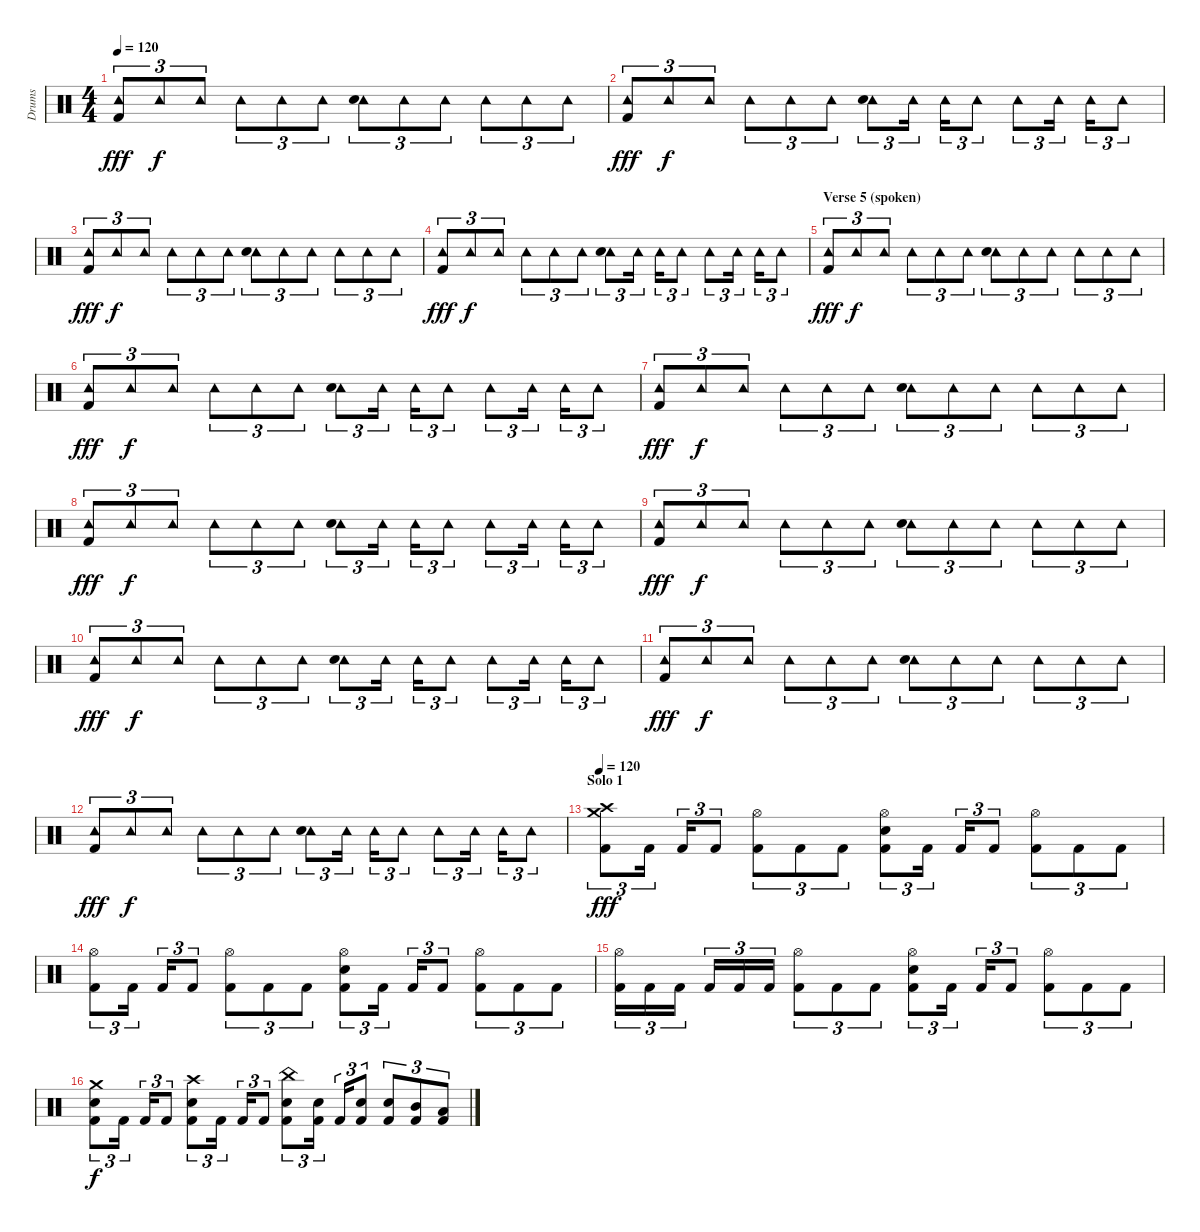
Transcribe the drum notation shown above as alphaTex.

\track ("Drums" "Drums") {instrument percussion}
\staff {score}
\articulation defaults
\ts (4 4)
\tempo 120
\clef neutral
\ks c
("Tambourine (hit)" "Kick (hit) 2").8{tu (3 2) dy fff} "Tambourine (hit)".8{tu (3 2) dy f} "Tambourine (hit)".8{tu (3 2)} "Tambourine (hit)".8{tu (3 2)} "Tambourine (hit)".8{tu (3 2)} "Tambourine (hit)".8{tu (3 2)} ("Tambourine (hit)" "Snare (hit) 2").8{tu (3 2)} "Tambourine (hit)".8{tu (3 2)} "Tambourine (hit)".8{tu (3 2)} "Tambourine (hit)".8{tu (3 2)} "Tambourine (hit)".8{tu (3 2)} "Tambourine (hit)".8{tu (3 2)} |
("Tambourine (hit)" "Kick (hit) 2").8{tu (3 2) dy fff} "Tambourine (hit)".8{tu (3 2) dy f} "Tambourine (hit)".8{tu (3 2)} "Tambourine (hit)".8{tu (3 2)} "Tambourine (hit)".8{tu (3 2)} "Tambourine (hit)".8{tu (3 2)} ("Tambourine (hit)" "Snare (hit) 2").8{tu (3 2)} "Tambourine (hit)".16{tu (3 2)} "Tambourine (hit)".16{tu (3 2)} "Tambourine (hit)".8{tu (3 2)} "Tambourine (hit)".8{tu (3 2)} "Tambourine (hit)".16{tu (3 2)} "Tambourine (hit)".16{tu (3 2)} "Tambourine (hit)".8{tu (3 2)} |
("Tambourine (hit)" "Kick (hit) 2").8{tu (3 2) dy fff} "Tambourine (hit)".8{tu (3 2) dy f} "Tambourine (hit)".8{tu (3 2)} "Tambourine (hit)".8{tu (3 2)} "Tambourine (hit)".8{tu (3 2)} "Tambourine (hit)".8{tu (3 2)} ("Tambourine (hit)" "Snare (hit) 2").8{tu (3 2)} "Tambourine (hit)".8{tu (3 2)} "Tambourine (hit)".8{tu (3 2)} "Tambourine (hit)".8{tu (3 2)} "Tambourine (hit)".8{tu (3 2)} "Tambourine (hit)".8{tu (3 2)} |
("Tambourine (hit)" "Kick (hit) 2").8{tu (3 2) dy fff} "Tambourine (hit)".8{tu (3 2) dy f} "Tambourine (hit)".8{tu (3 2)} "Tambourine (hit)".8{tu (3 2)} "Tambourine (hit)".8{tu (3 2)} "Tambourine (hit)".8{tu (3 2)} ("Tambourine (hit)" "Snare (hit) 2").8{tu (3 2)} "Tambourine (hit)".16{tu (3 2)} "Tambourine (hit)".16{tu (3 2)} "Tambourine (hit)".8{tu (3 2)} "Tambourine (hit)".8{tu (3 2)} "Tambourine (hit)".16{tu (3 2)} "Tambourine (hit)".16{tu (3 2)} "Tambourine (hit)".8{tu (3 2)} |
\section ("" "Verse 5 (spoken)")
("Tambourine (hit)" "Kick (hit) 2").8{tu (3 2) dy fff} "Tambourine (hit)".8{tu (3 2) dy f} "Tambourine (hit)".8{tu (3 2)} "Tambourine (hit)".8{tu (3 2)} "Tambourine (hit)".8{tu (3 2)} "Tambourine (hit)".8{tu (3 2)} ("Tambourine (hit)" "Snare (hit) 2").8{tu (3 2)} "Tambourine (hit)".8{tu (3 2)} "Tambourine (hit)".8{tu (3 2)} "Tambourine (hit)".8{tu (3 2)} "Tambourine (hit)".8{tu (3 2)} "Tambourine (hit)".8{tu (3 2)} |
("Tambourine (hit)" "Kick (hit) 2").8{tu (3 2) dy fff} "Tambourine (hit)".8{tu (3 2) dy f} "Tambourine (hit)".8{tu (3 2)} "Tambourine (hit)".8{tu (3 2)} "Tambourine (hit)".8{tu (3 2)} "Tambourine (hit)".8{tu (3 2)} ("Tambourine (hit)" "Snare (hit) 2").8{tu (3 2)} "Tambourine (hit)".16{tu (3 2)} "Tambourine (hit)".16{tu (3 2)} "Tambourine (hit)".8{tu (3 2)} "Tambourine (hit)".8{tu (3 2)} "Tambourine (hit)".16{tu (3 2)} "Tambourine (hit)".16{tu (3 2)} "Tambourine (hit)".8{tu (3 2)} |
("Tambourine (hit)" "Kick (hit) 2").8{tu (3 2) dy fff} "Tambourine (hit)".8{tu (3 2) dy f} "Tambourine (hit)".8{tu (3 2)} "Tambourine (hit)".8{tu (3 2)} "Tambourine (hit)".8{tu (3 2)} "Tambourine (hit)".8{tu (3 2)} ("Tambourine (hit)" "Snare (hit) 2").8{tu (3 2)} "Tambourine (hit)".8{tu (3 2)} "Tambourine (hit)".8{tu (3 2)} "Tambourine (hit)".8{tu (3 2)} "Tambourine (hit)".8{tu (3 2)} "Tambourine (hit)".8{tu (3 2)} |
("Tambourine (hit)" "Kick (hit) 2").8{tu (3 2) dy fff} "Tambourine (hit)".8{tu (3 2) dy f} "Tambourine (hit)".8{tu (3 2)} "Tambourine (hit)".8{tu (3 2)} "Tambourine (hit)".8{tu (3 2)} "Tambourine (hit)".8{tu (3 2)} ("Tambourine (hit)" "Snare (hit) 2").8{tu (3 2)} "Tambourine (hit)".16{tu (3 2)} "Tambourine (hit)".16{tu (3 2)} "Tambourine (hit)".8{tu (3 2)} "Tambourine (hit)".8{tu (3 2)} "Tambourine (hit)".16{tu (3 2)} "Tambourine (hit)".16{tu (3 2)} "Tambourine (hit)".8{tu (3 2)} |
("Tambourine (hit)" "Kick (hit) 2").8{tu (3 2) dy fff} "Tambourine (hit)".8{tu (3 2) dy f} "Tambourine (hit)".8{tu (3 2)} "Tambourine (hit)".8{tu (3 2)} "Tambourine (hit)".8{tu (3 2)} "Tambourine (hit)".8{tu (3 2)} ("Tambourine (hit)" "Snare (hit) 2").8{tu (3 2)} "Tambourine (hit)".8{tu (3 2)} "Tambourine (hit)".8{tu (3 2)} "Tambourine (hit)".8{tu (3 2)} "Tambourine (hit)".8{tu (3 2)} "Tambourine (hit)".8{tu (3 2)} |
("Tambourine (hit)" "Kick (hit) 2").8{tu (3 2) dy fff} "Tambourine (hit)".8{tu (3 2) dy f} "Tambourine (hit)".8{tu (3 2)} "Tambourine (hit)".8{tu (3 2)} "Tambourine (hit)".8{tu (3 2)} "Tambourine (hit)".8{tu (3 2)} ("Tambourine (hit)" "Snare (hit) 2").8{tu (3 2)} "Tambourine (hit)".16{tu (3 2)} "Tambourine (hit)".16{tu (3 2)} "Tambourine (hit)".8{tu (3 2)} "Tambourine (hit)".8{tu (3 2)} "Tambourine (hit)".16{tu (3 2)} "Tambourine (hit)".16{tu (3 2)} "Tambourine (hit)".8{tu (3 2)} |
("Tambourine (hit)" "Kick (hit) 2").8{tu (3 2) dy fff} "Tambourine (hit)".8{tu (3 2) dy f} "Tambourine (hit)".8{tu (3 2)} "Tambourine (hit)".8{tu (3 2)} "Tambourine (hit)".8{tu (3 2)} "Tambourine (hit)".8{tu (3 2)} ("Tambourine (hit)" "Snare (hit) 2").8{tu (3 2)} "Tambourine (hit)".8{tu (3 2)} "Tambourine (hit)".8{tu (3 2)} "Tambourine (hit)".8{tu (3 2)} "Tambourine (hit)".8{tu (3 2)} "Tambourine (hit)".8{tu (3 2)} |
("Tambourine (hit)" "Kick (hit) 2").8{tu (3 2) dy fff} "Tambourine (hit)".8{tu (3 2) dy f} "Tambourine (hit)".8{tu (3 2)} "Tambourine (hit)".8{tu (3 2)} "Tambourine (hit)".8{tu (3 2)} "Tambourine (hit)".8{tu (3 2)} ("Tambourine (hit)" "Snare (hit) 2").8{tu (3 2)} "Tambourine (hit)".16{tu (3 2)} "Tambourine (hit)".16{tu (3 2)} "Tambourine (hit)".8{tu (3 2)} "Tambourine (hit)".8{tu (3 2)} "Tambourine (hit)".16{tu (3 2)} "Tambourine (hit)".16{tu (3 2)} "Tambourine (hit)".8{tu (3 2)} |
\section ("" "Solo 1")
\tempo 120
("Crash medium (hit)" "Crash high (hit)" "Kick (hit) 2").8{tu (3 2) dy fff} "Kick (hit) 2".16{tu (3 2)} "Kick (hit) 2".16{tu (3 2)} "Kick (hit) 2".8{tu (3 2)} ("Hi-Hat (open)" "Kick (hit) 2").8{tu (3 2)} "Kick (hit) 2".8{tu (3 2)} "Kick (hit) 2".8{tu (3 2)} ("Hi-Hat (open)" "Snare (hit) 2" "Kick (hit) 2").8{tu (3 2)} "Kick (hit) 2".16{tu (3 2)} "Kick (hit) 2".16{tu (3 2)} "Kick (hit) 2".8{tu (3 2)} ("Hi-Hat (open)" "Kick (hit) 2").8{tu (3 2)} "Kick (hit) 2".8{tu (3 2)} "Kick (hit) 2".8{tu (3 2)} |
("Hi-Hat (open)" "Kick (hit) 2").8{tu (3 2)} "Kick (hit) 2".16{tu (3 2)} "Kick (hit) 2".16{tu (3 2)} "Kick (hit) 2".8{tu (3 2)} ("Hi-Hat (open)" "Kick (hit) 2").8{tu (3 2)} "Kick (hit) 2".8{tu (3 2)} "Kick (hit) 2".8{tu (3 2)} ("Hi-Hat (open)" "Snare (hit) 2" "Kick (hit) 2").8{tu (3 2)} "Kick (hit) 2".16{tu (3 2)} "Kick (hit) 2".16{tu (3 2)} "Kick (hit) 2".8{tu (3 2)} ("Hi-Hat (open)" "Kick (hit) 2").8{tu (3 2)} "Kick (hit) 2".8{tu (3 2)} "Kick (hit) 2".8{tu (3 2)} |
("Hi-Hat (open)" "Kick (hit) 2").16{tu (3 2)} "Kick (hit) 2".16{tu (3 2)} "Kick (hit) 2".16{tu (3 2)} "Kick (hit) 2".16{tu (3 2)} "Kick (hit) 2".16{tu (3 2)} "Kick (hit) 2".16{tu (3 2)} ("Hi-Hat (open)" "Kick (hit) 2").8{tu (3 2)} "Kick (hit) 2".8{tu (3 2)} "Kick (hit) 2".8{tu (3 2)} ("Hi-Hat (open)" "Snare (hit) 2" "Kick (hit) 2").8{tu (3 2)} "Kick (hit) 2".16{tu (3 2)} "Kick (hit) 2".16{tu (3 2)} "Kick (hit) 2".8{tu (3 2)} ("Hi-Hat (open)" "Kick (hit) 2").8{tu (3 2)} "Kick (hit) 2".8{tu (3 2)} "Kick (hit) 2".8{tu (3 2)} |
("Crash medium (hit)" "Snare (hit) 2" "Kick (hit) 2").8{tu (3 2) dy f} "Kick (hit) 2".16{tu (3 2)} "Kick (hit) 2".16{tu (3 2)} "Kick (hit) 2".8{tu (3 2)} ("Crash high (hit)" "Snare (hit) 2" "Kick (hit) 2").8{tu (3 2)} "Kick (hit) 2".16{tu (3 2)} "Kick (hit) 2".16{tu (3 2)} "Kick (hit) 2".8{tu (3 2)} ("China (hit)" "Snare (hit) 2" "Kick (hit) 2").8{tu (3 2)} ("Snare (hit) 2" "Kick (hit) 2").16{tu (3 2)} "Kick (hit) 2".16{tu (3 2)} ("Snare (hit) 2" "Kick (hit) 2").8{tu (3 2)} ("Snare (hit) 2" "Kick (hit) 2").8{tu (3 2)} ("Mid Tom (hit)" "Kick (hit) 2").8{tu (3 2)} ("Low Tom (hit)" "Kick (hit) 2").8{tu (3 2)}
